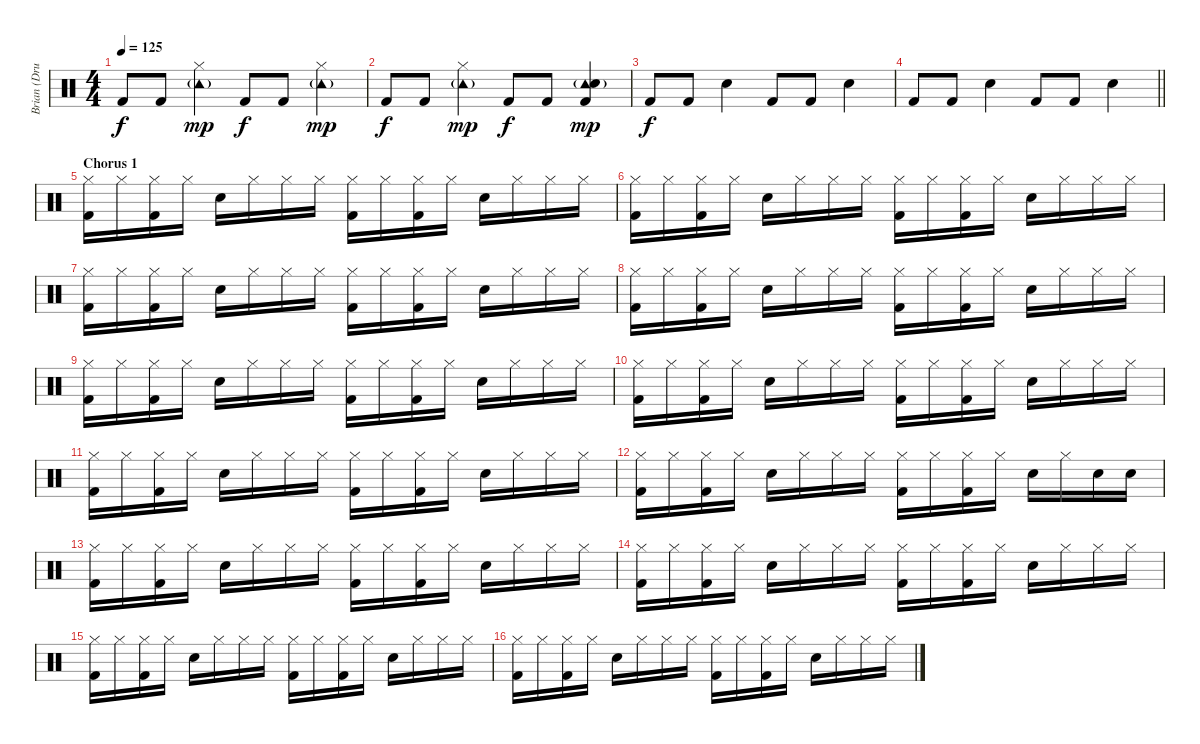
\track ("Brian (Drums)" "Brian (Dru") {instrument percussion}
\staff {score}
\articulation defaults
\ts (4 4)
\tempo 125
\clef neutral
\ks c "Kick (hit) 2".8{dy f} "Kick (hit) 2".8
("Tambourine (hit)"{g} "Hi-Hat (closed)").4{dy mp} "Kick (hit) 2".8{dy f} "Kick (hit) 2".8 ("Tambourine (hit)"{g} "Hi-Hat (closed)").4{dy mp} |
"Kick (hit) 2".8{dy f} "Kick (hit) 2".8 ("Tambourine (hit)"{g} "Hi-Hat (closed)").4{dy mp} "Kick (hit) 2".8{dy f} "Kick (hit) 2".8 ("Tambourine (hit)"{g} "Electric Snare (hit)" "Kick (hit) 2").4{dy mp} |
"Kick (hit) 2".8{dy f} "Kick (hit) 2".8 "Electric Snare (hit)".4 "Kick (hit) 2".8 "Kick (hit) 2".8 "Electric Snare (hit)".4 |
\barLineRight lightlight "Kick (hit) 2".8 "Kick (hit) 2".8 "Electric Snare (hit)".4 "Kick (hit) 2".8 "Kick (hit) 2".8 "Electric Snare (hit)".4
|
\section ("" "Chorus 1")
("Hi-Hat (closed)" "Kick (hit) 2").16 "Hi-Hat (closed)".16 ("Hi-Hat (closed)" "Kick (hit) 2").16 "Hi-Hat (closed)".16 "Electric Snare (hit)".16 "Hi-Hat (closed)".16 "Hi-Hat (closed)".16 "Hi-Hat (closed)".16 ("Hi-Hat (closed)" "Kick (hit) 2").16 "Hi-Hat (closed)".16 ("Hi-Hat (closed)" "Kick (hit) 2").16 "Hi-Hat (closed)".16 "Electric Snare (hit)".16 "Hi-Hat (closed)".16 "Hi-Hat (closed)".16 "Hi-Hat (closed)".16 |
("Hi-Hat (closed)" "Kick (hit) 2").16 "Hi-Hat (closed)".16 ("Hi-Hat (closed)" "Kick (hit) 2").16 "Hi-Hat (closed)".16 "Electric Snare (hit)".16 "Hi-Hat (closed)".16 "Hi-Hat (closed)".16 "Hi-Hat (closed)".16 ("Hi-Hat (closed)" "Kick (hit) 2").16 "Hi-Hat (closed)".16 ("Hi-Hat (closed)" "Kick (hit) 2").16 "Hi-Hat (closed)".16 "Electric Snare (hit)".16 "Hi-Hat (closed)".16 "Hi-Hat (closed)".16 "Hi-Hat (closed)".16 |
("Hi-Hat (closed)" "Kick (hit) 2").16 "Hi-Hat (closed)".16 ("Hi-Hat (closed)" "Kick (hit) 2").16 "Hi-Hat (closed)".16 "Electric Snare (hit)".16 "Hi-Hat (closed)".16 "Hi-Hat (closed)".16 "Hi-Hat (closed)".16 ("Hi-Hat (closed)" "Kick (hit) 2").16 "Hi-Hat (closed)".16 ("Hi-Hat (closed)" "Kick (hit) 2").16 "Hi-Hat (closed)".16 "Electric Snare (hit)".16 "Hi-Hat (closed)".16 "Hi-Hat (closed)".16 "Hi-Hat (closed)".16 |
("Hi-Hat (closed)" "Kick (hit) 2").16 "Hi-Hat (closed)".16 ("Hi-Hat (closed)" "Kick (hit) 2").16 "Hi-Hat (closed)".16 "Electric Snare (hit)".16 "Hi-Hat (closed)".16 "Hi-Hat (closed)".16 "Hi-Hat (closed)".16 ("Hi-Hat (closed)" "Kick (hit) 2").16 "Hi-Hat (closed)".16 ("Hi-Hat (closed)" "Kick (hit) 2").16 "Hi-Hat (closed)".16 "Electric Snare (hit)".16 "Hi-Hat (closed)".16 "Hi-Hat (closed)".16 "Hi-Hat (closed)".16 |
("Hi-Hat (closed)" "Kick (hit) 2").16 "Hi-Hat (closed)".16 ("Hi-Hat (closed)" "Kick (hit) 2").16 "Hi-Hat (closed)".16 "Electric Snare (hit)".16 "Hi-Hat (closed)".16 "Hi-Hat (closed)".16 "Hi-Hat (closed)".16 ("Hi-Hat (closed)" "Kick (hit) 2").16 "Hi-Hat (closed)".16 ("Hi-Hat (closed)" "Kick (hit) 2").16 "Hi-Hat (closed)".16 "Electric Snare (hit)".16 "Hi-Hat (closed)".16 "Hi-Hat (closed)".16 "Hi-Hat (closed)".16 |
("Hi-Hat (closed)" "Kick (hit) 2").16 "Hi-Hat (closed)".16 ("Hi-Hat (closed)" "Kick (hit) 2").16 "Hi-Hat (closed)".16 "Electric Snare (hit)".16 "Hi-Hat (closed)".16 "Hi-Hat (closed)".16 "Hi-Hat (closed)".16 ("Hi-Hat (closed)" "Kick (hit) 2").16 "Hi-Hat (closed)".16 ("Hi-Hat (closed)" "Kick (hit) 2").16 "Hi-Hat (closed)".16 "Electric Snare (hit)".16 "Hi-Hat (closed)".16 "Hi-Hat (closed)".16 "Hi-Hat (closed)".16 |
("Hi-Hat (closed)" "Kick (hit) 2").16 "Hi-Hat (closed)".16 ("Hi-Hat (closed)" "Kick (hit) 2").16 "Hi-Hat (closed)".16 "Electric Snare (hit)".16 "Hi-Hat (closed)".16 "Hi-Hat (closed)".16 "Hi-Hat (closed)".16 ("Hi-Hat (closed)" "Kick (hit) 2").16 "Hi-Hat (closed)".16 ("Hi-Hat (closed)" "Kick (hit) 2").16 "Hi-Hat (closed)".16 "Electric Snare (hit)".16 "Hi-Hat (closed)".16 "Hi-Hat (closed)".16 "Hi-Hat (closed)".16 |
("Hi-Hat (closed)" "Kick (hit) 2").16 "Hi-Hat (closed)".16 ("Hi-Hat (closed)" "Kick (hit) 2").16 "Hi-Hat (closed)".16 "Electric Snare (hit)".16 "Hi-Hat (closed)".16 "Hi-Hat (closed)".16 "Hi-Hat (closed)".16 ("Hi-Hat (closed)" "Kick (hit) 2").16 "Hi-Hat (closed)".16 ("Hi-Hat (closed)" "Kick (hit) 2").16 "Hi-Hat (closed)".16 "Electric Snare (hit)".16 "Hi-Hat (closed)".16 "Electric Snare (hit)".16 "Electric Snare (hit)".16 |
("Hi-Hat (closed)" "Kick (hit) 2").16 "Hi-Hat (closed)".16 ("Hi-Hat (closed)" "Kick (hit) 2").16 "Hi-Hat (closed)".16 "Electric Snare (hit)".16 "Hi-Hat (closed)".16 "Hi-Hat (closed)".16 "Hi-Hat (closed)".16 ("Hi-Hat (closed)" "Kick (hit) 2").16 "Hi-Hat (closed)".16 ("Hi-Hat (closed)" "Kick (hit) 2").16 "Hi-Hat (closed)".16 "Electric Snare (hit)".16 "Hi-Hat (closed)".16 "Hi-Hat (closed)".16 "Hi-Hat (closed)".16 |
("Hi-Hat (closed)" "Kick (hit) 2").16 "Hi-Hat (closed)".16 ("Hi-Hat (closed)" "Kick (hit) 2").16 "Hi-Hat (closed)".16 "Electric Snare (hit)".16 "Hi-Hat (closed)".16 "Hi-Hat (closed)".16 "Hi-Hat (closed)".16 ("Hi-Hat (closed)" "Kick (hit) 2").16 "Hi-Hat (closed)".16 ("Hi-Hat (closed)" "Kick (hit) 2").16 "Hi-Hat (closed)".16 "Electric Snare (hit)".16 "Hi-Hat (closed)".16 "Hi-Hat (closed)".16 "Hi-Hat (closed)".16 |
("Hi-Hat (closed)" "Kick (hit) 2").16 "Hi-Hat (closed)".16 ("Hi-Hat (closed)" "Kick (hit) 2").16 "Hi-Hat (closed)".16 "Electric Snare (hit)".16 "Hi-Hat (closed)".16 "Hi-Hat (closed)".16 "Hi-Hat (closed)".16 ("Hi-Hat (closed)" "Kick (hit) 2").16 "Hi-Hat (closed)".16 ("Hi-Hat (closed)" "Kick (hit) 2").16 "Hi-Hat (closed)".16 "Electric Snare (hit)".16 "Hi-Hat (closed)".16 "Hi-Hat (closed)".16 "Hi-Hat (closed)".16 |
("Hi-Hat (closed)" "Kick (hit) 2").16 "Hi-Hat (closed)".16 ("Hi-Hat (closed)" "Kick (hit) 2").16 "Hi-Hat (closed)".16 "Electric Snare (hit)".16 "Hi-Hat (closed)".16 "Hi-Hat (closed)".16 "Hi-Hat (closed)".16 ("Hi-Hat (closed)" "Kick (hit) 2").16 "Hi-Hat (closed)".16 ("Hi-Hat (closed)" "Kick (hit) 2").16 "Hi-Hat (closed)".16 "Electric Snare (hit)".16 "Hi-Hat (closed)".16 "Hi-Hat (closed)".16 "Hi-Hat (closed)".16
